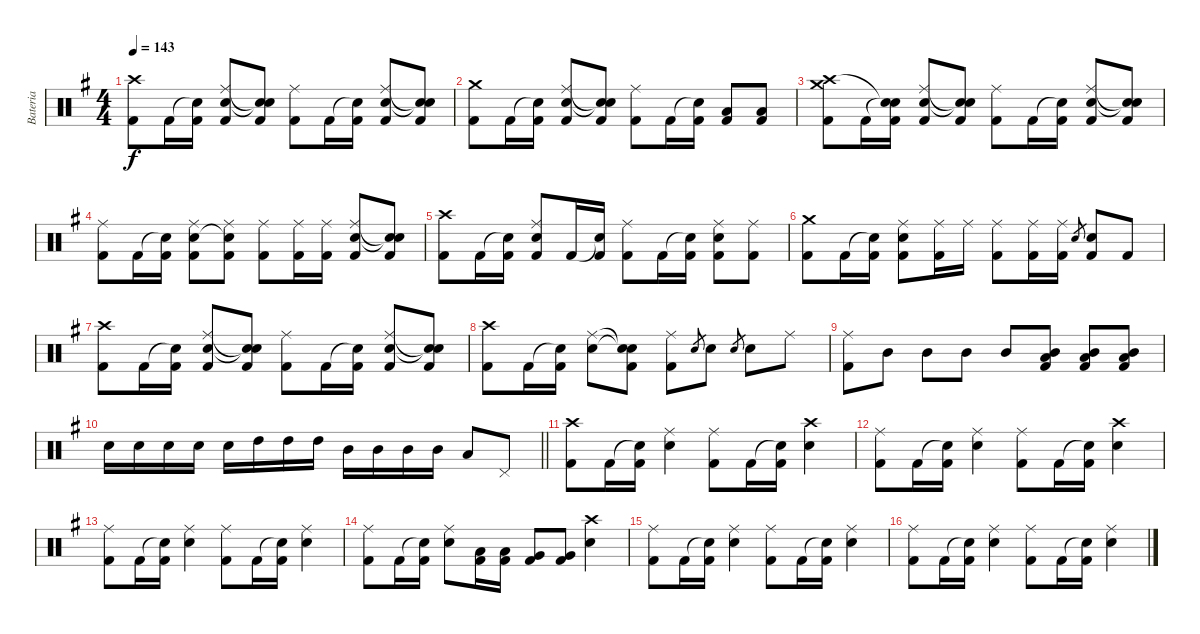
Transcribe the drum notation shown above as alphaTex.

\track ("Bateria" "Bateria") {instrument percussion}
\staff {score}
\articulation defaults
\ts (4 4)
\tempo 143
\clef neutral
\ks g
("Crash high (hit)" "Kick (hit) 2").8{dy f} "Kick (hit) 2".16 ("Snare (hit)"{t} "Kick (hit) 2").16 ("Ride (middle)" "Electric Snare (hit)" "Kick (hit) 2").8 ("Snare (hit)"{t} "Snare (hit)"{t} "Kick (hit) 2").8 ("Ride (middle)" "Kick (hit) 2").8 "Kick (hit) 2".16 ("Snare (hit)"{t} "Kick (hit) 2").16 ("Ride (middle)" "Electric Snare (hit)" "Kick (hit) 2").8 ("Snare (hit)"{t} "Snare (hit)"{t} "Kick (hit) 2").8 |
("Crash medium (hit)" "Kick (hit) 2").8 "Kick (hit) 2".16 ("Snare (hit)"{t} "Kick (hit) 2").16 ("Ride (middle)" "Electric Snare (hit)" "Kick (hit) 2").8 ("Snare (hit)"{t} "Snare (hit)"{t} "Kick (hit) 2").8 ("Ride (middle)" "Kick (hit) 2").8 "Kick (hit) 2".16 ("Snare (hit)"{t} "Kick (hit) 2").16 ("Low Tom (hit)" "Kick (hit) 2").8 ("Low Tom (hit)" "Kick (hit) 2").8 |
("Crash medium (hit)" "Crash high (hit)" "Kick (hit) 2").8 "Kick (hit) 2".16 ("Snare (hit)"{t} "Snare (hit)"{t} "Kick (hit) 2").16 ("Ride (middle)" "Electric Snare (hit)" "Kick (hit) 2").8 ("Snare (hit)"{t} "Snare (hit)"{t} "Kick (hit) 2").8 ("Ride (middle)" "Kick (hit) 2").8 "Kick (hit) 2".16 ("Snare (hit)"{t} "Kick (hit) 2").16 ("Ride (middle)" "Electric Snare (hit)" "Kick (hit) 2").8 ("Snare (hit)"{t} "Snare (hit)"{t} "Kick (hit) 2").8 |
("Ride (middle)" "Kick (hit) 2").8 "Kick (hit) 2".16 ("Snare (hit)"{t} "Kick (hit) 2").16 ("Ride (middle)" "Electric Snare (hit)" "Kick (hit) 2").8 ("Ride (middle)" "Snare (hit)"{t} "Kick (hit) 2").8 ("Ride (middle)" "Kick (hit) 2").8 ("Ride (middle)" "Kick (hit) 2").16 ("Ride (middle)" "Kick (hit) 2").16 ("Ride (middle)" "Electric Snare (hit)" "Kick (hit) 2").8 ("Snare (hit)"{t} "Snare (hit)"{t} "Kick (hit) 2").8 |
("Crash high (hit)" "Kick (hit) 2").8 "Kick (hit) 2".16 ("Snare (hit)"{t} "Kick (hit) 2").16 ("Ride (middle)" "Electric Snare (hit)" "Kick (hit) 2").8 "Kick (hit) 2".16 ("Snare (hit)"{t} "Kick (hit) 2").16 ("Ride (middle)" "Kick (hit) 2").8 "Kick (hit) 2".16 ("Snare (hit)"{t} "Kick (hit) 2").16 ("Ride (middle)" "Electric Snare (hit)" "Kick (hit) 2").8 ("Ride (middle)" "Kick (hit) 2").8 |
("Crash medium (hit)" "Kick (hit) 2").8 "Kick (hit) 2".16 ("Snare (hit)"{t} "Kick (hit) 2").16 ("Ride (middle)" "Electric Snare (hit)" "Kick (hit) 2").8 ("Ride (middle)" "Kick (hit) 2").16 "Ride (middle)".16 ("Ride (middle)" "Kick (hit) 2").8 ("Ride (middle)" "Kick (hit) 2").16 ("Ride (middle)" "Kick (hit) 2").16 "Electric Snare (hit)".8{gr} ("Electric Snare (hit)" "Kick (hit) 2").8 "Kick (hit) 2".8 |
("Crash high (hit)" "Kick (hit) 2").8 "Kick (hit) 2".16 ("Snare (hit)"{t} "Kick (hit) 2").16 ("Ride (middle)" "Electric Snare (hit)" "Kick (hit) 2").8 ("Snare (hit)"{t} "Snare (hit)"{t} "Kick (hit) 2").8 ("Ride (middle)" "Kick (hit) 2").8 "Kick (hit) 2".16 ("Snare (hit)"{t} "Kick (hit) 2").16 ("Ride (middle)" "Electric Snare (hit)" "Kick (hit) 2").8 ("Snare (hit)"{t} "Snare (hit)"{t} "Kick (hit) 2").8 |
("Crash high (hit)" "Kick (hit) 2").8 "Kick (hit) 2".16 ("Snare (hit)"{t} "Kick (hit) 2").16 ("Ride (middle)" "Electric Snare (hit)").8 ("Snare (hit)"{t} "Snare (hit)"{t} "Kick (hit) 2").8 ("Ride (middle)" "Kick (hit) 2").8 "Electric Snare (hit)".8{gr} "Electric Snare (hit)".8 "Electric Snare (hit)".8{gr} "Electric Snare (hit)".8 "Ride (middle)".8 |
("Ride (middle)" "Kick (hit) 2").8 "Mid Tom (hit)".8 "Mid Tom (hit)".8 "Mid Tom (hit)".8 "Mid Tom (hit)".8 ("Mid Tom (hit)" "Low Tom (hit)" "Kick (hit) 2").8 ("Mid Tom (hit)" "Low Tom (hit)" "Kick (hit) 2").8 ("Mid Tom (hit)" "Low Tom (hit)" "Kick (hit) 2").8 |
\barLineRight lightlight "Electric Snare (hit)".16 "Electric Snare (hit)".16 "Electric Snare (hit)".16 "Electric Snare (hit)".16 "Electric Snare (hit)".16 "High Tom (hit)".16 "High Tom (hit)".16 "High Tom (hit)".16 "Mid Tom (hit)".16 "Mid Tom (hit)".16 "Mid Tom (hit)".16 "Mid Tom (hit)".16 "Low Tom (hit)".8 "Pedal Hi-Hat (hit)".8
|
("Crash high (hit)" "Kick (hit) 2").8 "Kick (hit) 2".16 ("Snare (hit)"{t} "Kick (hit) 2").16 ("Ride (middle)" "Electric Snare (hit)").4 ("Ride (middle)" "Kick (hit) 2").8 "Kick (hit) 2".16 ("Snare (hit)"{t} "Kick (hit) 2").16 ("Crash high (hit)" "Electric Snare (hit)").4 |
("Ride (middle)" "Kick (hit) 2").8 "Kick (hit) 2".16 ("Snare (hit)"{t} "Kick (hit) 2").16 ("Ride (middle)" "Electric Snare (hit)").4 ("Ride (middle)" "Kick (hit) 2").8 "Kick (hit) 2".16 ("Snare (hit)"{t} "Kick (hit) 2").16 ("Crash high (hit)" "Electric Snare (hit)").4 |
("Ride (middle)" "Kick (hit) 2").8 "Kick (hit) 2".16 ("Snare (hit)"{t} "Kick (hit) 2").16 ("Ride (middle)" "Electric Snare (hit)").4 ("Ride (middle)" "Kick (hit) 2").8 "Kick (hit) 2".16 ("Snare (hit)"{t} "Kick (hit) 2").16 ("Ride (middle)" "Electric Snare (hit)").4 |
("Ride (middle)" "Kick (hit) 2").8 "Kick (hit) 2".16 ("Snare (hit)"{t} "Kick (hit) 2").16 ("Ride (middle)" "Electric Snare (hit)").8 ("Low Tom (hit)" "Kick (hit) 2").16 ("Low Tom (hit)" "Kick (hit) 2").16 ("Very Low Tom (hit)" "Kick (hit) 2").8 ("Very Low Tom (hit)" "Kick (hit) 2").8 ("Crash high (hit)" "Electric Snare (hit)").4 |
("Ride (middle)" "Kick (hit) 2").8 "Kick (hit) 2".16 ("Snare (hit)"{t} "Kick (hit) 2").16 ("Ride (middle)" "Electric Snare (hit)").4 ("Ride (middle)" "Kick (hit) 2").8 "Kick (hit) 2".16 ("Snare (hit)"{t} "Kick (hit) 2").16 ("Ride (middle)" "Electric Snare (hit)").4 |
("Ride (middle)" "Kick (hit) 2").8 "Kick (hit) 2".16 ("Snare (hit)"{t} "Kick (hit) 2").16 ("Ride (middle)" "Electric Snare (hit)").4 ("Ride (middle)" "Kick (hit) 2").8 "Kick (hit) 2".16 ("Snare (hit)"{t} "Kick (hit) 2").16 ("Ride (middle)" "Electric Snare (hit)").4
